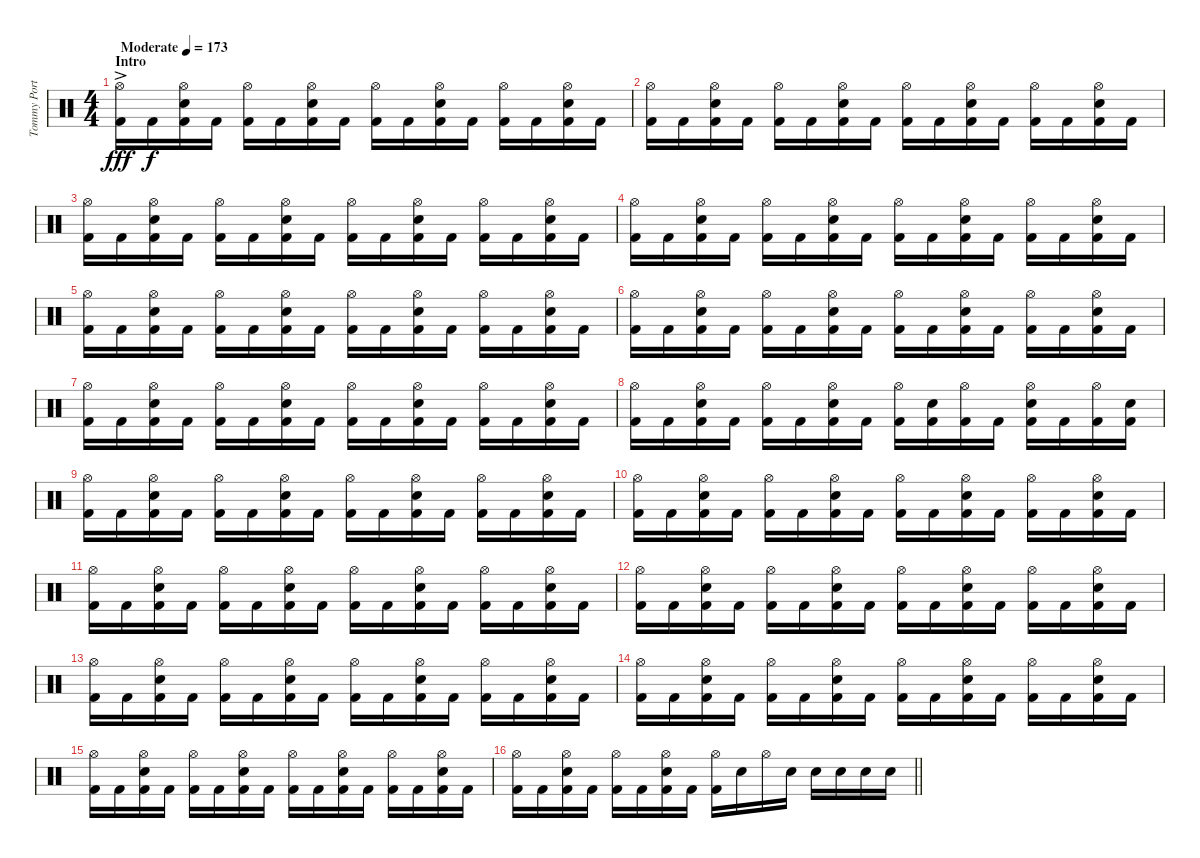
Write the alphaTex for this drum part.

\track ("Tommy Portimo - Drums" "Tommy Port") {instrument percussion}
\staff {score}
\articulation defaults
\ts (4 4)
\section ("" "Intro")
\tempo (173 "Moderate")
\clef neutral
\ks aminor
("Kick (hit) 2"{ac} "Hi-Hat (open)").16{dy fff} "Kick (hit) 2".16{dy f} ("Kick (hit) 2" "Electric Snare (hit)" "Hi-Hat (open)").16 "Kick (hit) 2".16 ("Kick (hit) 2" "Hi-Hat (open)").16 "Kick (hit) 2".16 ("Kick (hit) 2" "Electric Snare (hit)" "Hi-Hat (open)").16 "Kick (hit) 2".16 ("Kick (hit) 2" "Hi-Hat (open)").16 "Kick (hit) 2".16 ("Kick (hit) 2" "Electric Snare (hit)" "Hi-Hat (open)").16 "Kick (hit) 2".16 ("Kick (hit) 2" "Hi-Hat (open)").16 "Kick (hit) 2".16 ("Kick (hit) 2" "Electric Snare (hit)" "Hi-Hat (open)").16 "Kick (hit) 2".16 |
("Kick (hit) 2" "Hi-Hat (open)").16 "Kick (hit) 2".16 ("Kick (hit) 2" "Electric Snare (hit)" "Hi-Hat (open)").16 "Kick (hit) 2".16 ("Kick (hit) 2" "Hi-Hat (open)").16 "Kick (hit) 2".16 ("Kick (hit) 2" "Electric Snare (hit)" "Hi-Hat (open)").16 "Kick (hit) 2".16 ("Kick (hit) 2" "Hi-Hat (open)").16 "Kick (hit) 2".16 ("Kick (hit) 2" "Electric Snare (hit)" "Hi-Hat (open)").16 "Kick (hit) 2".16 ("Kick (hit) 2" "Hi-Hat (open)").16 "Kick (hit) 2".16 ("Kick (hit) 2" "Electric Snare (hit)" "Hi-Hat (open)").16 "Kick (hit) 2".16 |
("Kick (hit) 2" "Hi-Hat (open)").16 "Kick (hit) 2".16 ("Kick (hit) 2" "Electric Snare (hit)" "Hi-Hat (open)").16 "Kick (hit) 2".16 ("Kick (hit) 2" "Hi-Hat (open)").16 "Kick (hit) 2".16 ("Kick (hit) 2" "Electric Snare (hit)" "Hi-Hat (open)").16 "Kick (hit) 2".16 ("Kick (hit) 2" "Hi-Hat (open)").16 "Kick (hit) 2".16 ("Kick (hit) 2" "Electric Snare (hit)" "Hi-Hat (open)").16 "Kick (hit) 2".16 ("Kick (hit) 2" "Hi-Hat (open)").16 "Kick (hit) 2".16 ("Kick (hit) 2" "Electric Snare (hit)" "Hi-Hat (open)").16 "Kick (hit) 2".16 |
("Kick (hit) 2" "Hi-Hat (open)").16 "Kick (hit) 2".16 ("Kick (hit) 2" "Electric Snare (hit)" "Hi-Hat (open)").16 "Kick (hit) 2".16 ("Kick (hit) 2" "Hi-Hat (open)").16 "Kick (hit) 2".16 ("Kick (hit) 2" "Electric Snare (hit)" "Hi-Hat (open)").16 "Kick (hit) 2".16 ("Kick (hit) 2" "Hi-Hat (open)").16 "Kick (hit) 2".16 ("Kick (hit) 2" "Electric Snare (hit)" "Hi-Hat (open)").16 "Kick (hit) 2".16 ("Kick (hit) 2" "Hi-Hat (open)").16 "Kick (hit) 2".16 ("Kick (hit) 2" "Electric Snare (hit)" "Hi-Hat (open)").16 "Kick (hit) 2".16 |
("Kick (hit) 2" "Hi-Hat (open)").16 "Kick (hit) 2".16 ("Kick (hit) 2" "Electric Snare (hit)" "Hi-Hat (open)").16 "Kick (hit) 2".16 ("Kick (hit) 2" "Hi-Hat (open)").16 "Kick (hit) 2".16 ("Kick (hit) 2" "Electric Snare (hit)" "Hi-Hat (open)").16 "Kick (hit) 2".16 ("Kick (hit) 2" "Hi-Hat (open)").16 "Kick (hit) 2".16 ("Kick (hit) 2" "Electric Snare (hit)" "Hi-Hat (open)").16 "Kick (hit) 2".16 ("Kick (hit) 2" "Hi-Hat (open)").16 "Kick (hit) 2".16 ("Kick (hit) 2" "Electric Snare (hit)" "Hi-Hat (open)").16 "Kick (hit) 2".16 |
("Kick (hit) 2" "Hi-Hat (open)").16 "Kick (hit) 2".16 ("Kick (hit) 2" "Electric Snare (hit)" "Hi-Hat (open)").16 "Kick (hit) 2".16 ("Kick (hit) 2" "Hi-Hat (open)").16 "Kick (hit) 2".16 ("Kick (hit) 2" "Electric Snare (hit)" "Hi-Hat (open)").16 "Kick (hit) 2".16 ("Kick (hit) 2" "Hi-Hat (open)").16 "Kick (hit) 2".16 ("Kick (hit) 2" "Electric Snare (hit)" "Hi-Hat (open)").16 "Kick (hit) 2".16 ("Kick (hit) 2" "Hi-Hat (open)").16 "Kick (hit) 2".16 ("Kick (hit) 2" "Electric Snare (hit)" "Hi-Hat (open)").16 "Kick (hit) 2".16 |
("Kick (hit) 2" "Hi-Hat (open)").16 "Kick (hit) 2".16 ("Kick (hit) 2" "Electric Snare (hit)" "Hi-Hat (open)").16 "Kick (hit) 2".16 ("Kick (hit) 2" "Hi-Hat (open)").16 "Kick (hit) 2".16 ("Kick (hit) 2" "Electric Snare (hit)" "Hi-Hat (open)").16 "Kick (hit) 2".16 ("Kick (hit) 2" "Hi-Hat (open)").16 "Kick (hit) 2".16 ("Kick (hit) 2" "Electric Snare (hit)" "Hi-Hat (open)").16 "Kick (hit) 2".16 ("Kick (hit) 2" "Hi-Hat (open)").16 "Kick (hit) 2".16 ("Kick (hit) 2" "Electric Snare (hit)" "Hi-Hat (open)").16 "Kick (hit) 2".16 |
("Kick (hit) 2" "Hi-Hat (open)").16 "Kick (hit) 2".16 ("Kick (hit) 2" "Electric Snare (hit)" "Hi-Hat (open)").16 "Kick (hit) 2".16 ("Kick (hit) 2" "Hi-Hat (open)").16 "Kick (hit) 2".16 ("Kick (hit) 2" "Electric Snare (hit)" "Hi-Hat (open)").16 "Kick (hit) 2".16 ("Kick (hit) 2" "Hi-Hat (open)").16 ("Kick (hit) 2" "Electric Snare (hit)").16 ("Kick (hit) 2" "Hi-Hat (open)").16 "Kick (hit) 2".16 ("Kick (hit) 2" "Electric Snare (hit)" "Hi-Hat (open)").16 "Kick (hit) 2".16 ("Kick (hit) 2" "Hi-Hat (open)").16 ("Kick (hit) 2" "Electric Snare (hit)").16 |
("Kick (hit) 2" "Hi-Hat (open)").16 "Kick (hit) 2".16 ("Kick (hit) 2" "Electric Snare (hit)" "Hi-Hat (open)").16 "Kick (hit) 2".16 ("Kick (hit) 2" "Hi-Hat (open)").16 "Kick (hit) 2".16 ("Kick (hit) 2" "Electric Snare (hit)" "Hi-Hat (open)").16 "Kick (hit) 2".16 ("Kick (hit) 2" "Hi-Hat (open)").16 "Kick (hit) 2".16 ("Kick (hit) 2" "Electric Snare (hit)" "Hi-Hat (open)").16 "Kick (hit) 2".16 ("Kick (hit) 2" "Hi-Hat (open)").16 "Kick (hit) 2".16 ("Kick (hit) 2" "Electric Snare (hit)" "Hi-Hat (open)").16 "Kick (hit) 2".16 |
("Kick (hit) 2" "Hi-Hat (open)").16 "Kick (hit) 2".16 ("Kick (hit) 2" "Electric Snare (hit)" "Hi-Hat (open)").16 "Kick (hit) 2".16 ("Kick (hit) 2" "Hi-Hat (open)").16 "Kick (hit) 2".16 ("Kick (hit) 2" "Electric Snare (hit)" "Hi-Hat (open)").16 "Kick (hit) 2".16 ("Kick (hit) 2" "Hi-Hat (open)").16 "Kick (hit) 2".16 ("Kick (hit) 2" "Electric Snare (hit)" "Hi-Hat (open)").16 "Kick (hit) 2".16 ("Kick (hit) 2" "Hi-Hat (open)").16 "Kick (hit) 2".16 ("Kick (hit) 2" "Electric Snare (hit)" "Hi-Hat (open)").16 "Kick (hit) 2".16 |
("Kick (hit) 2" "Hi-Hat (open)").16 "Kick (hit) 2".16 ("Kick (hit) 2" "Electric Snare (hit)" "Hi-Hat (open)").16 "Kick (hit) 2".16 ("Kick (hit) 2" "Hi-Hat (open)").16 "Kick (hit) 2".16 ("Kick (hit) 2" "Electric Snare (hit)" "Hi-Hat (open)").16 "Kick (hit) 2".16 ("Kick (hit) 2" "Hi-Hat (open)").16 "Kick (hit) 2".16 ("Kick (hit) 2" "Electric Snare (hit)" "Hi-Hat (open)").16 "Kick (hit) 2".16 ("Kick (hit) 2" "Hi-Hat (open)").16 "Kick (hit) 2".16 ("Kick (hit) 2" "Electric Snare (hit)" "Hi-Hat (open)").16 "Kick (hit) 2".16 |
("Kick (hit) 2" "Hi-Hat (open)").16 "Kick (hit) 2".16 ("Kick (hit) 2" "Electric Snare (hit)" "Hi-Hat (open)").16 "Kick (hit) 2".16 ("Kick (hit) 2" "Hi-Hat (open)").16 "Kick (hit) 2".16 ("Kick (hit) 2" "Electric Snare (hit)" "Hi-Hat (open)").16 "Kick (hit) 2".16 ("Kick (hit) 2" "Hi-Hat (open)").16 "Kick (hit) 2".16 ("Kick (hit) 2" "Electric Snare (hit)" "Hi-Hat (open)").16 "Kick (hit) 2".16 ("Kick (hit) 2" "Hi-Hat (open)").16 "Kick (hit) 2".16 ("Kick (hit) 2" "Electric Snare (hit)" "Hi-Hat (open)").16 "Kick (hit) 2".16 |
("Kick (hit) 2" "Hi-Hat (open)").16 "Kick (hit) 2".16 ("Kick (hit) 2" "Electric Snare (hit)" "Hi-Hat (open)").16 "Kick (hit) 2".16 ("Kick (hit) 2" "Hi-Hat (open)").16 "Kick (hit) 2".16 ("Kick (hit) 2" "Electric Snare (hit)" "Hi-Hat (open)").16 "Kick (hit) 2".16 ("Kick (hit) 2" "Hi-Hat (open)").16 "Kick (hit) 2".16 ("Kick (hit) 2" "Electric Snare (hit)" "Hi-Hat (open)").16 "Kick (hit) 2".16 ("Kick (hit) 2" "Hi-Hat (open)").16 "Kick (hit) 2".16 ("Kick (hit) 2" "Electric Snare (hit)" "Hi-Hat (open)").16 "Kick (hit) 2".16 |
("Kick (hit) 2" "Hi-Hat (open)").16 "Kick (hit) 2".16 ("Kick (hit) 2" "Electric Snare (hit)" "Hi-Hat (open)").16 "Kick (hit) 2".16 ("Kick (hit) 2" "Hi-Hat (open)").16 "Kick (hit) 2".16 ("Kick (hit) 2" "Electric Snare (hit)" "Hi-Hat (open)").16 "Kick (hit) 2".16 ("Kick (hit) 2" "Hi-Hat (open)").16 "Kick (hit) 2".16 ("Kick (hit) 2" "Electric Snare (hit)" "Hi-Hat (open)").16 "Kick (hit) 2".16 ("Kick (hit) 2" "Hi-Hat (open)").16 "Kick (hit) 2".16 ("Kick (hit) 2" "Electric Snare (hit)" "Hi-Hat (open)").16 "Kick (hit) 2".16 |
("Kick (hit) 2" "Hi-Hat (open)").16 "Kick (hit) 2".16 ("Kick (hit) 2" "Electric Snare (hit)" "Hi-Hat (open)").16 "Kick (hit) 2".16 ("Kick (hit) 2" "Hi-Hat (open)").16 "Kick (hit) 2".16 ("Kick (hit) 2" "Electric Snare (hit)" "Hi-Hat (open)").16 "Kick (hit) 2".16 ("Kick (hit) 2" "Hi-Hat (open)").16 "Kick (hit) 2".16 ("Kick (hit) 2" "Electric Snare (hit)" "Hi-Hat (open)").16 "Kick (hit) 2".16 ("Kick (hit) 2" "Hi-Hat (open)").16 "Kick (hit) 2".16 ("Kick (hit) 2" "Electric Snare (hit)" "Hi-Hat (open)").16 "Kick (hit) 2".16 |
\barLineRight lightlight
("Kick (hit) 2" "Hi-Hat (open)").16 "Kick (hit) 2".16 ("Kick (hit) 2" "Electric Snare (hit)" "Hi-Hat (open)").16 "Kick (hit) 2".16 ("Kick (hit) 2" "Hi-Hat (open)").16 "Kick (hit) 2".16 ("Kick (hit) 2" "Electric Snare (hit)" "Hi-Hat (open)").16 "Kick (hit) 2".16 ("Kick (hit) 2" "Hi-Hat (open)").16 "Electric Snare (hit)".16 "Hi-Hat (open)".16 "Electric Snare (hit)".16 "Electric Snare (hit)".16 "Electric Snare (hit)".16 "Electric Snare (hit)".16 "Electric Snare (hit)".16
